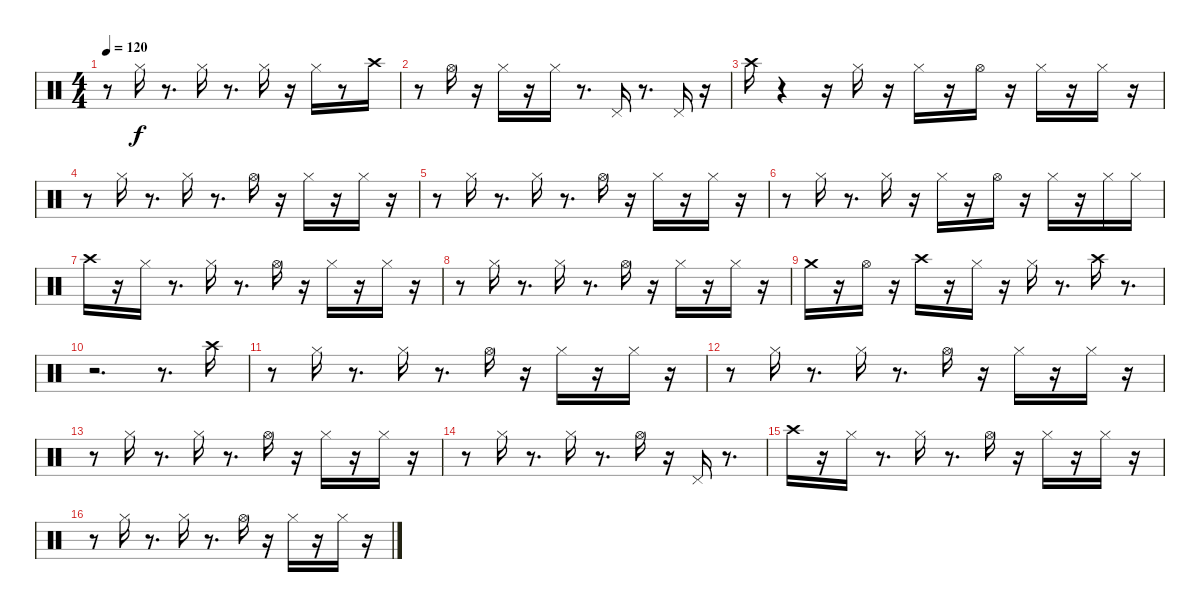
\track "" {instrument percussion}
\staff {score}
\articulation defaults
\ts (4 4)
\tempo 120
\clef neutral
\ks c
r.8{dy f} "Hi-Hat (closed)".16 r.8{d} "Hi-Hat (closed)".16 r.8{d} "Hi-Hat (closed)".16 r.16 "Hi-Hat (closed)".16 r.8 "Crash high (hit)".16 |
r.8 "Hi-Hat (open)".16 r.16 "Hi-Hat (closed)".16 r.16 "Hi-Hat (closed)".16 r.8{d} "Pedal Hi-Hat (hit)".16 r.8{d} "Pedal Hi-Hat (hit)".16 r.16 |
"Crash high (hit)".16 r.4 r.16 "Hi-Hat (closed)".16 r.16 "Hi-Hat (closed)".16 r.16 "Hi-Hat (open)".16 r.16 "Hi-Hat (closed)".16 r.16 "Hi-Hat (closed)".16 r.16 |
r.8 "Hi-Hat (closed)".16 r.8{d} "Hi-Hat (closed)".16 r.8{d} "Hi-Hat (open)".16 r.16 "Hi-Hat (closed)".16 r.16 "Hi-Hat (closed)".16 r.16 |
r.8 "Hi-Hat (closed)".16 r.8{d} "Hi-Hat (closed)".16 r.8{d} "Hi-Hat (open)".16 r.16 "Hi-Hat (closed)".16 r.16 "Hi-Hat (closed)".16 r.16 |
r.8 "Hi-Hat (closed)".16 r.8{d} "Hi-Hat (closed)".16 r.16 "Hi-Hat (closed)".16 r.16 "Hi-Hat (open)".16 r.16 "Hi-Hat (closed)".16 r.16 "Hi-Hat (closed)".16 "Hi-Hat (closed)".16 |
"Crash high (hit)".16 r.16 "Hi-Hat (closed)".16 r.8{d} "Hi-Hat (closed)".16 r.8{d} "Hi-Hat (open)".16 r.16 "Hi-Hat (closed)".16 r.16 "Hi-Hat (closed)".16 r.16 |
r.8 "Hi-Hat (closed)".16 r.8{d} "Hi-Hat (closed)".16 r.8{d} "Hi-Hat (open)".16 r.16 "Hi-Hat (closed)".16 r.16 "Hi-Hat (closed)".16 r.16 |
"Crash medium (hit)".16 r.16 "Hi-Hat (open)".16 r.16 "Crash high (hit)".16 r.16 "Hi-Hat (closed)".16 r.16 "Hi-Hat (closed)".16 r.8{d} "Crash high (hit)".16 r.8{d} |
r.2{d} r.8{d} "Crash high (hit)".16 |
r.8 "Hi-Hat (closed)".16 r.8{d} "Hi-Hat (closed)".16 r.8{d} "Hi-Hat (open)".16 r.16 "Hi-Hat (closed)".16 r.16 "Hi-Hat (closed)".16 r.16 |
r.8 "Hi-Hat (closed)".16 r.8{d} "Hi-Hat (closed)".16 r.8{d} "Hi-Hat (open)".16 r.16 "Hi-Hat (closed)".16 r.16 "Hi-Hat (closed)".16 r.16 |
r.8 "Hi-Hat (closed)".16 r.8{d} "Hi-Hat (closed)".16 r.8{d} "Hi-Hat (open)".16 r.16 "Hi-Hat (closed)".16 r.16 "Hi-Hat (closed)".16 r.16 |
r.8 "Hi-Hat (closed)".16 r.8{d} "Hi-Hat (closed)".16 r.8{d} "Hi-Hat (open)".16 r.16 "Pedal Hi-Hat (hit)".16 r.8{d} |
"Crash high (hit)".16 r.16 "Hi-Hat (closed)".16 r.8{d} "Hi-Hat (closed)".16 r.8{d} "Hi-Hat (open)".16 r.16 "Hi-Hat (closed)".16 r.16 "Hi-Hat (closed)".16 r.16 |
r.8 "Hi-Hat (closed)".16 r.8{d} "Hi-Hat (closed)".16 r.8{d} "Hi-Hat (open)".16 r.16 "Hi-Hat (closed)".16 r.16 "Hi-Hat (closed)".16 r.16
